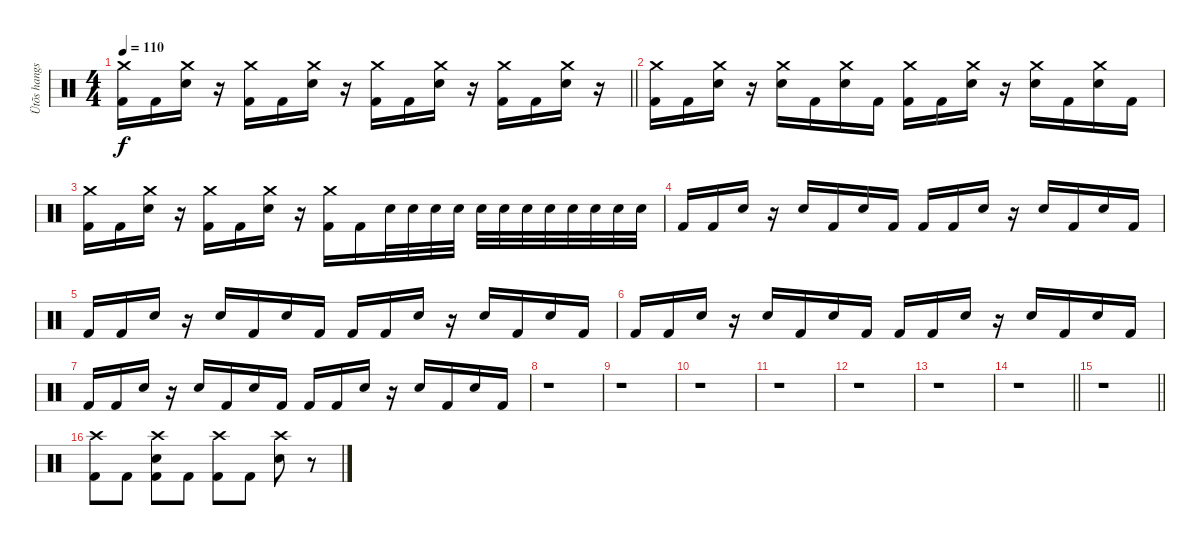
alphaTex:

\track ("Ütõs hangszer" "Ütõs hangs") {instrument percussion}
\staff {score}
\articulation defaults
\ts (4 4)
\tempo 110
\clef neutral
\barLineRight lightlight
\ks c
("Crash medium (hit)" "Kick (hit) 2").16{dy f} "Kick (hit) 2".16 ("Crash medium (hit)" "Snare (hit) 2").16 r.16 ("Crash medium (hit)" "Kick (hit) 2").16 "Kick (hit) 2".16 ("Crash medium (hit)" "Snare (hit) 2").16 r.16 ("Crash medium (hit)" "Kick (hit) 2").16 "Kick (hit) 2".16 ("Crash medium (hit)" "Snare (hit) 2").16 r.16 ("Crash medium (hit)" "Kick (hit) 2").16 "Kick (hit) 2".16 ("Crash medium (hit)" "Snare (hit) 2").16 r.16 |
("Crash medium (hit)" "Kick (hit) 2").16 "Kick (hit) 2".16 ("Crash medium (hit)" "Snare (hit) 2").16 r.16 ("Crash medium (hit)" "Snare (hit) 2").16 "Kick (hit) 2".16 ("Crash medium (hit)" "Snare (hit) 2").16 "Kick (hit) 2".16 ("Crash medium (hit)" "Kick (hit) 2").16 "Kick (hit) 2".16 ("Crash medium (hit)" "Snare (hit) 2").16 r.16 ("Crash medium (hit)" "Snare (hit) 2").16 "Kick (hit) 2".16 ("Crash medium (hit)" "Snare (hit) 2").16 "Kick (hit) 2".16 |
("Crash medium (hit)" "Kick (hit) 2").16 "Kick (hit) 2".16 ("Crash medium (hit)" "Snare (hit) 2").16 r.16 ("Crash medium (hit)" "Kick (hit) 2").16 "Kick (hit) 2".16 ("Crash medium (hit)" "Snare (hit) 2").16 r.16 ("Crash medium (hit)" "Kick (hit) 2").16 "Kick (hit) 2".16 "Snare (hit) 2".32 "Snare (hit) 2".32 "Snare (hit) 2".32 "Snare (hit) 2".32 "Snare (hit) 2".32 "Snare (hit) 2".32 "Snare (hit) 2".32 "Snare (hit) 2".32 "Snare (hit) 2".32 "Snare (hit) 2".32 "Snare (hit) 2".32 "Snare (hit) 2".32 |
"Kick (hit) 2".16{volume 0} "Kick (hit) 2".16 "Electric Snare (hit)".16 r.16 "Electric Snare (hit)".16 "Kick (hit) 2".16 "Electric Snare (hit)".16 "Kick (hit) 2".16 "Kick (hit) 2".16 "Kick (hit) 2".16 "Electric Snare (hit)".16 r.16 "Electric Snare (hit)".16 "Kick (hit) 2".16 "Electric Snare (hit)".16 "Kick (hit) 2".16 |
"Kick (hit) 2".16 "Kick (hit) 2".16 "Electric Snare (hit)".16 r.16 "Electric Snare (hit)".16 "Kick (hit) 2".16 "Electric Snare (hit)".16 "Kick (hit) 2".16 "Kick (hit) 2".16 "Kick (hit) 2".16 "Electric Snare (hit)".16 r.16 "Electric Snare (hit)".16 "Kick (hit) 2".16 "Electric Snare (hit)".16 "Kick (hit) 2".16 |
"Kick (hit) 2".16 "Kick (hit) 2".16 "Electric Snare (hit)".16 r.16 "Electric Snare (hit)".16 "Kick (hit) 2".16 "Electric Snare (hit)".16 "Kick (hit) 2".16 "Kick (hit) 2".16 "Kick (hit) 2".16 "Electric Snare (hit)".16 r.16 "Electric Snare (hit)".16 "Kick (hit) 2".16 "Electric Snare (hit)".16 "Kick (hit) 2".16 |
"Kick (hit) 2".16 "Kick (hit) 2".16 "Electric Snare (hit)".16 r.16 "Electric Snare (hit)".16 "Kick (hit) 2".16 "Electric Snare (hit)".16 "Kick (hit) 2".16 "Kick (hit) 2".16 "Kick (hit) 2".16 "Electric Snare (hit)".16 r.16 "Electric Snare (hit)".16 "Kick (hit) 2".16 "Electric Snare (hit)".16 "Kick (hit) 2".16 |
r.1 |
r.1 |
r.1 |
r.1 |
r.1 |
r.1 |
\barLineRight lightlight
r.1 |
\barLineRight lightlight
r.1 |
("Crash high (hit)" "Kick (hit) 2").8{volume 13} "Kick (hit) 2".8 ("Crash high (hit)" "Electric Snare (hit)" "Kick (hit) 2").8 "Kick (hit) 2".8 ("Crash high (hit)" "Kick (hit) 2").8 "Kick (hit) 2".8 ("Crash high (hit)" "Electric Snare (hit)").8 r.8
